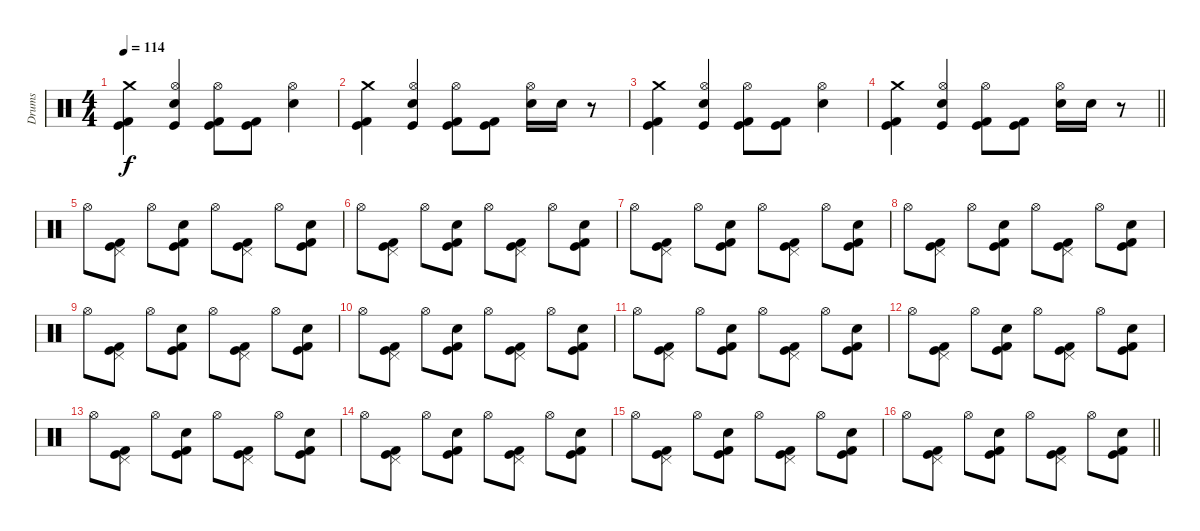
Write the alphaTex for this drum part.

\track ("Drums" "Drums") {instrument percussion}
\staff {score}
\articulation defaults
\ts (4 4)
\tempo 114
\clef neutral
\ks c
("Crash medium (hit)" "Kick (hit) 2" "Kick (hit)").4{dy f} ("Hi-Hat (open)" "Snare (hit) 2" "Kick (hit)").4 ("Hi-Hat (open)" "Kick (hit) 2" "Kick (hit)").8 ("Kick (hit) 2" "Kick (hit)").8 ("Hi-Hat (open)" "Snare (hit) 2").4 |
("Crash medium (hit)" "Kick (hit) 2" "Kick (hit)").4 ("Hi-Hat (open)" "Snare (hit) 2" "Kick (hit)").4 ("Hi-Hat (open)" "Kick (hit) 2" "Kick (hit)").8 ("Kick (hit) 2" "Kick (hit)").8 ("Hi-Hat (open)" "Snare (hit) 2").16 "Snare (hit) 2".16 r.8 |
("Crash medium (hit)" "Kick (hit) 2" "Kick (hit)").4 ("Hi-Hat (open)" "Snare (hit) 2" "Kick (hit)").4 ("Hi-Hat (open)" "Kick (hit) 2" "Kick (hit)").8 ("Kick (hit) 2" "Kick (hit)").8 ("Hi-Hat (open)" "Snare (hit) 2").4 |
\barLineRight lightlight
("Crash medium (hit)" "Kick (hit) 2" "Kick (hit)").4 ("Hi-Hat (open)" "Snare (hit) 2" "Kick (hit)").4 ("Hi-Hat (open)" "Kick (hit) 2" "Kick (hit)").8 ("Kick (hit) 2" "Kick (hit)").8 ("Hi-Hat (open)" "Snare (hit) 2").16 "Snare (hit) 2".16 r.8 |
"Hi-Hat (open)".8 ("Pedal Hi-Hat (hit)" "Kick (hit) 2" "Kick (hit)").8 "Hi-Hat (open)".8 ("Snare (hit) 2" "Kick (hit) 2" "Kick (hit)").8 "Hi-Hat (open)".8 ("Pedal Hi-Hat (hit)" "Kick (hit) 2" "Kick (hit)").8 "Hi-Hat (open)".8 ("Snare (hit) 2" "Kick (hit) 2" "Kick (hit)").8 |
"Hi-Hat (open)".8 ("Pedal Hi-Hat (hit)" "Kick (hit) 2" "Kick (hit)").8 "Hi-Hat (open)".8 ("Snare (hit) 2" "Kick (hit) 2" "Kick (hit)").8 "Hi-Hat (open)".8 ("Pedal Hi-Hat (hit)" "Kick (hit) 2" "Kick (hit)").8 "Hi-Hat (open)".8 ("Snare (hit) 2" "Kick (hit) 2" "Kick (hit)").8 |
"Hi-Hat (open)".8 ("Pedal Hi-Hat (hit)" "Kick (hit) 2" "Kick (hit)").8 "Hi-Hat (open)".8 ("Snare (hit) 2" "Kick (hit) 2" "Kick (hit)").8 "Hi-Hat (open)".8 ("Pedal Hi-Hat (hit)" "Kick (hit) 2" "Kick (hit)").8 "Hi-Hat (open)".8 ("Snare (hit) 2" "Kick (hit) 2" "Kick (hit)").8 |
"Hi-Hat (open)".8 ("Pedal Hi-Hat (hit)" "Kick (hit) 2" "Kick (hit)").8 "Hi-Hat (open)".8 ("Snare (hit) 2" "Kick (hit) 2" "Kick (hit)").8 "Hi-Hat (open)".8 ("Pedal Hi-Hat (hit)" "Kick (hit) 2" "Kick (hit)").8 "Hi-Hat (open)".8 ("Snare (hit) 2" "Kick (hit) 2" "Kick (hit)").8 |
"Hi-Hat (open)".8 ("Pedal Hi-Hat (hit)" "Kick (hit) 2" "Kick (hit)").8 "Hi-Hat (open)".8 ("Snare (hit) 2" "Kick (hit) 2" "Kick (hit)").8 "Hi-Hat (open)".8 ("Pedal Hi-Hat (hit)" "Kick (hit) 2" "Kick (hit)").8 "Hi-Hat (open)".8 ("Snare (hit) 2" "Kick (hit) 2" "Kick (hit)").8 |
"Hi-Hat (open)".8 ("Pedal Hi-Hat (hit)" "Kick (hit) 2" "Kick (hit)").8 "Hi-Hat (open)".8 ("Snare (hit) 2" "Kick (hit) 2" "Kick (hit)").8 "Hi-Hat (open)".8 ("Pedal Hi-Hat (hit)" "Kick (hit) 2" "Kick (hit)").8 "Hi-Hat (open)".8 ("Snare (hit) 2" "Kick (hit) 2" "Kick (hit)").8 |
"Hi-Hat (open)".8 ("Pedal Hi-Hat (hit)" "Kick (hit) 2" "Kick (hit)").8 "Hi-Hat (open)".8 ("Snare (hit) 2" "Kick (hit) 2" "Kick (hit)").8 "Hi-Hat (open)".8 ("Pedal Hi-Hat (hit)" "Kick (hit) 2" "Kick (hit)").8 "Hi-Hat (open)".8 ("Snare (hit) 2" "Kick (hit) 2" "Kick (hit)").8 |
"Hi-Hat (open)".8 ("Pedal Hi-Hat (hit)" "Kick (hit) 2" "Kick (hit)").8 "Hi-Hat (open)".8 ("Snare (hit) 2" "Kick (hit) 2" "Kick (hit)").8 "Hi-Hat (open)".8 ("Pedal Hi-Hat (hit)" "Kick (hit) 2" "Kick (hit)").8 "Hi-Hat (open)".8 ("Snare (hit) 2" "Kick (hit) 2" "Kick (hit)").8 |
"Hi-Hat (open)".8 ("Pedal Hi-Hat (hit)" "Kick (hit) 2" "Kick (hit)").8 "Hi-Hat (open)".8 ("Snare (hit) 2" "Kick (hit) 2" "Kick (hit)").8 "Hi-Hat (open)".8 ("Pedal Hi-Hat (hit)" "Kick (hit) 2" "Kick (hit)").8 "Hi-Hat (open)".8 ("Snare (hit) 2" "Kick (hit) 2" "Kick (hit)").8 |
"Hi-Hat (open)".8 ("Pedal Hi-Hat (hit)" "Kick (hit) 2" "Kick (hit)").8 "Hi-Hat (open)".8 ("Snare (hit) 2" "Kick (hit) 2" "Kick (hit)").8 "Hi-Hat (open)".8 ("Pedal Hi-Hat (hit)" "Kick (hit) 2" "Kick (hit)").8 "Hi-Hat (open)".8 ("Snare (hit) 2" "Kick (hit) 2" "Kick (hit)").8 |
"Hi-Hat (open)".8 ("Pedal Hi-Hat (hit)" "Kick (hit) 2" "Kick (hit)").8 "Hi-Hat (open)".8 ("Snare (hit) 2" "Kick (hit) 2" "Kick (hit)").8 "Hi-Hat (open)".8 ("Pedal Hi-Hat (hit)" "Kick (hit) 2" "Kick (hit)").8 "Hi-Hat (open)".8 ("Snare (hit) 2" "Kick (hit) 2" "Kick (hit)").8 |
\barLineRight lightlight "Hi-Hat (open)".8
("Pedal Hi-Hat (hit)" "Kick (hit) 2" "Kick (hit)").8 "Hi-Hat (open)".8 ("Snare (hit) 2" "Kick (hit) 2" "Kick (hit)").8 "Hi-Hat (open)".8 ("Pedal Hi-Hat (hit)" "Kick (hit) 2" "Kick (hit)").8 "Hi-Hat (open)".8 ("Snare (hit) 2" "Kick (hit) 2" "Kick (hit)").8
